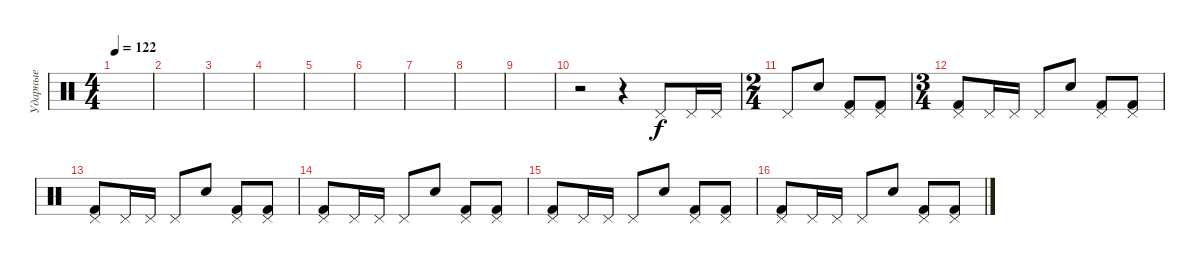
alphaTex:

\track ("Ударные" "Ударные") {instrument percussion}
\staff {score}
\articulation defaults
\ts (4 4)
\tempo 122
\clef neutral
\ks c
|
|
|
|
|
|
|
|
|
r.2 r.4 "Pedal Hi-Hat (hit)".8 "Pedal Hi-Hat (hit)".16 "Pedal Hi-Hat (hit)".16 |
\ts (2 4)
"Pedal Hi-Hat (hit)".8 "Electric Snare (hit)".8 ("Kick (hit) 2" "Pedal Hi-Hat (hit)").8 ("Kick (hit) 2" "Pedal Hi-Hat (hit)").8 |
\ts (3 4)
("Kick (hit) 2" "Pedal Hi-Hat (hit)").8 "Pedal Hi-Hat (hit)".16 "Pedal Hi-Hat (hit)".16 "Pedal Hi-Hat (hit)".8 "Electric Snare (hit)".8 ("Kick (hit) 2" "Pedal Hi-Hat (hit)").8 ("Kick (hit) 2" "Pedal Hi-Hat (hit)").8 |
("Kick (hit) 2" "Pedal Hi-Hat (hit)").8 "Pedal Hi-Hat (hit)".16 "Pedal Hi-Hat (hit)".16 "Pedal Hi-Hat (hit)".8 "Electric Snare (hit)".8 ("Kick (hit) 2" "Pedal Hi-Hat (hit)").8 ("Kick (hit) 2" "Pedal Hi-Hat (hit)").8 |
("Kick (hit) 2" "Pedal Hi-Hat (hit)").8 "Pedal Hi-Hat (hit)".16 "Pedal Hi-Hat (hit)".16 "Pedal Hi-Hat (hit)".8 "Electric Snare (hit)".8 ("Kick (hit) 2" "Pedal Hi-Hat (hit)").8 ("Kick (hit) 2" "Pedal Hi-Hat (hit)").8 |
("Kick (hit) 2" "Pedal Hi-Hat (hit)").8 "Pedal Hi-Hat (hit)".16 "Pedal Hi-Hat (hit)".16 "Pedal Hi-Hat (hit)".8 "Electric Snare (hit)".8 ("Kick (hit) 2" "Pedal Hi-Hat (hit)").8 ("Kick (hit) 2" "Pedal Hi-Hat (hit)").8 |
("Kick (hit) 2" "Pedal Hi-Hat (hit)").8 "Pedal Hi-Hat (hit)".16 "Pedal Hi-Hat (hit)".16 "Pedal Hi-Hat (hit)".8 "Electric Snare (hit)".8 ("Kick (hit) 2" "Pedal Hi-Hat (hit)").8 ("Kick (hit) 2" "Pedal Hi-Hat (hit)").8
